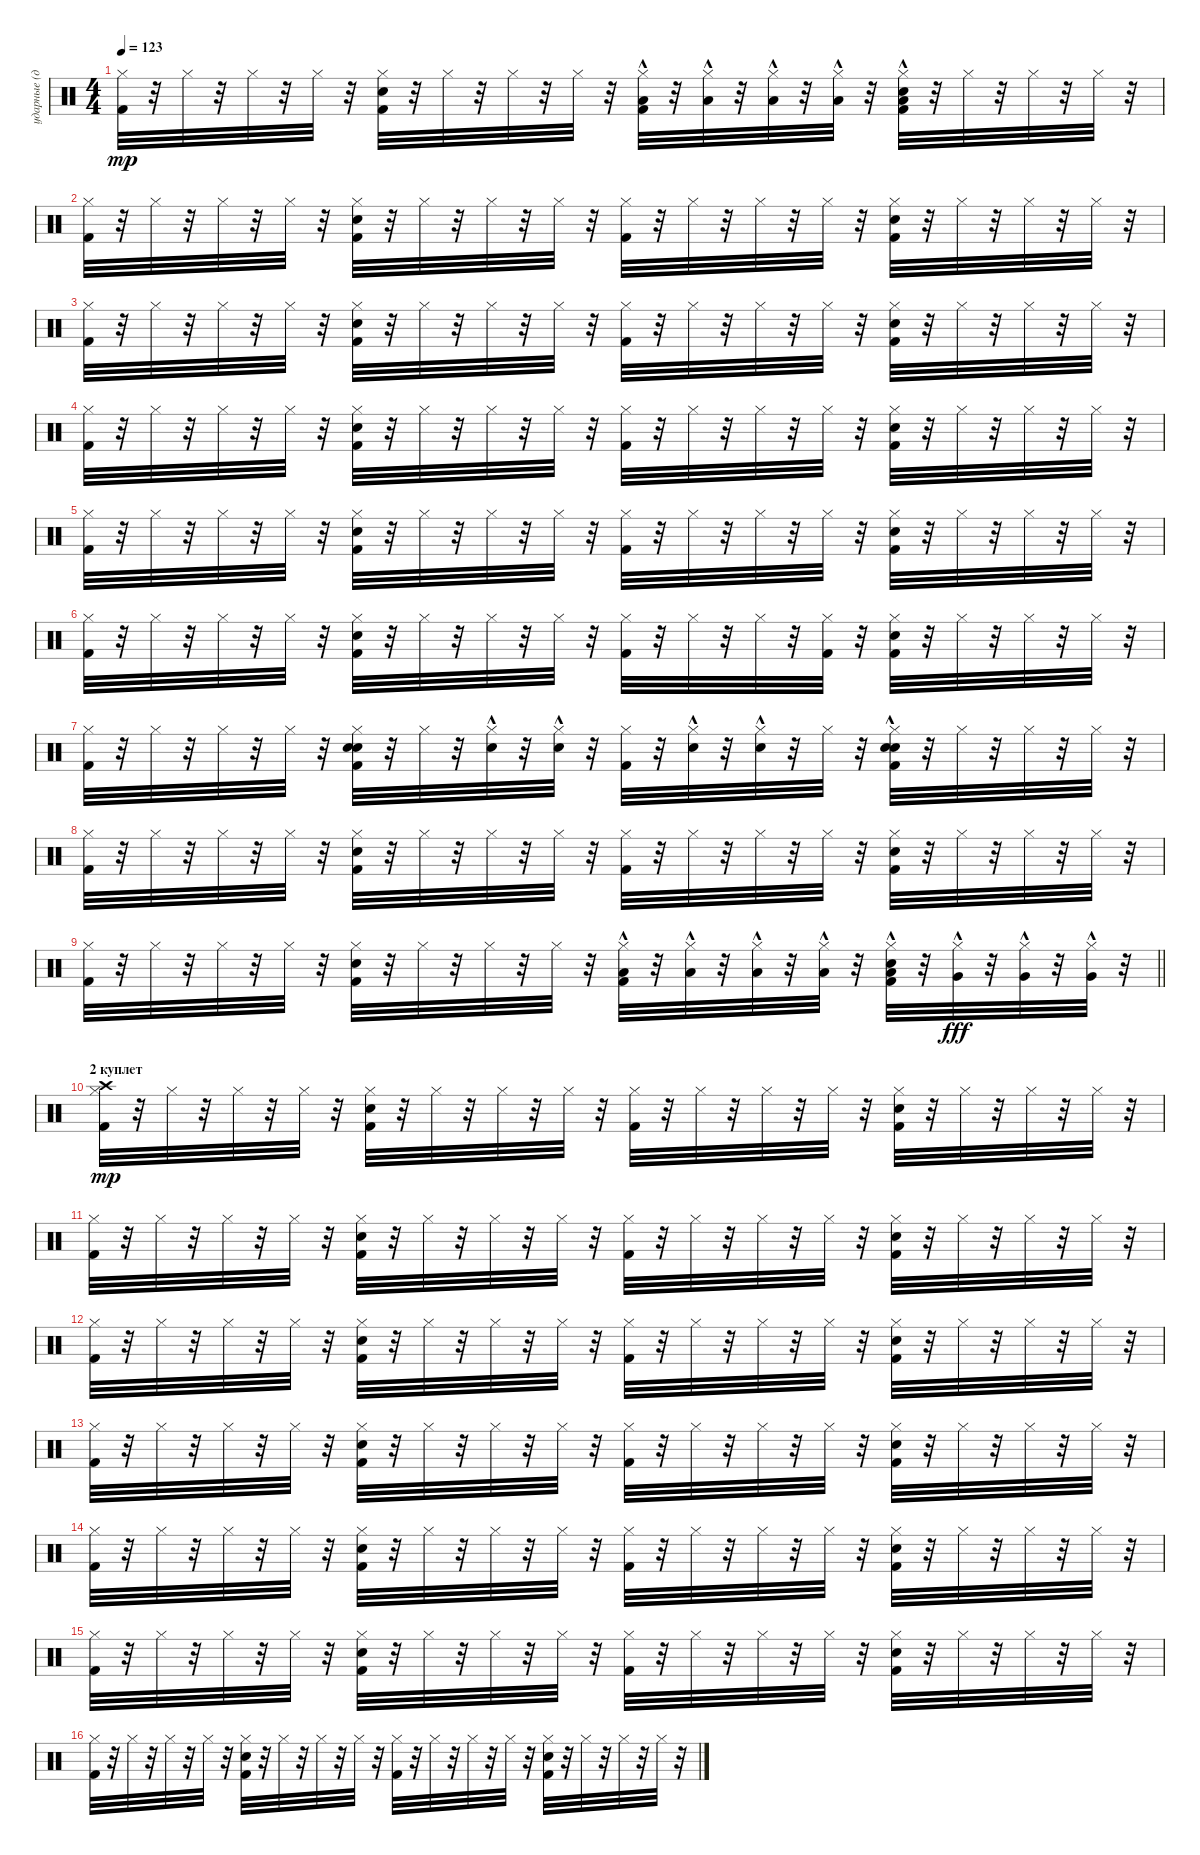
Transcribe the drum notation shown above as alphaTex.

\track ("ударные (драм-машина)" "ударные (д") {instrument percussion}
\staff {score}
\articulation defaults
\ts (4 4)
\tempo 123
\clef neutral
\ks c
("Kick (hit) 2" "Hi-Hat (closed)").32{dy mp} r.32 "Hi-Hat (closed)".32 r.32 "Hi-Hat (closed)".32 r.32 "Hi-Hat (closed)".32 r.32 ("Kick (hit) 2" "Snare (hit) 2" "Hi-Hat (closed)").32 r.32 "Hi-Hat (closed)".32 r.32 "Hi-Hat (closed)".32 r.32 "Hi-Hat (closed)".32 r.32 ("Low Tom (hit)"{hac} "Kick (hit) 2" "Hi-Hat (closed)").32 r.32 ("Low Tom (hit)"{hac} "Hi-Hat (closed)").32 r.32 ("Low Tom (hit)"{hac} "Hi-Hat (closed)").32 r.32 ("Low Tom (hit)"{hac} "Hi-Hat (closed)").32 r.32 ("Low Tom (hit)"{hac} "Kick (hit) 2" "Snare (hit) 2" "Hi-Hat (closed)").32 r.32 "Hi-Hat (closed)".32 r.32 "Hi-Hat (closed)".32 r.32 "Hi-Hat (closed)".32 r.32 |
("Kick (hit) 2" "Hi-Hat (closed)").32 r.32 "Hi-Hat (closed)".32 r.32 "Hi-Hat (closed)".32 r.32 "Hi-Hat (closed)".32 r.32 ("Kick (hit) 2" "Snare (hit) 2" "Hi-Hat (closed)").32 r.32 "Hi-Hat (closed)".32 r.32 "Hi-Hat (closed)".32 r.32 "Hi-Hat (closed)".32 r.32 ("Kick (hit) 2" "Hi-Hat (closed)").32 r.32 "Hi-Hat (closed)".32 r.32 "Hi-Hat (closed)".32 r.32 "Hi-Hat (closed)".32 r.32 ("Kick (hit) 2" "Snare (hit) 2" "Hi-Hat (closed)").32 r.32 "Hi-Hat (closed)".32 r.32 "Hi-Hat (closed)".32 r.32 "Hi-Hat (closed)".32 r.32 |
("Kick (hit) 2" "Hi-Hat (closed)").32 r.32 "Hi-Hat (closed)".32 r.32 "Hi-Hat (closed)".32 r.32 "Hi-Hat (closed)".32 r.32 ("Kick (hit) 2" "Snare (hit) 2" "Hi-Hat (closed)").32 r.32 "Hi-Hat (closed)".32 r.32 "Hi-Hat (closed)".32 r.32 "Hi-Hat (closed)".32 r.32 ("Kick (hit) 2" "Hi-Hat (closed)").32 r.32 "Hi-Hat (closed)".32 r.32 "Hi-Hat (closed)".32 r.32 "Hi-Hat (closed)".32 r.32 ("Kick (hit) 2" "Snare (hit) 2" "Hi-Hat (closed)").32 r.32 "Hi-Hat (closed)".32 r.32 "Hi-Hat (closed)".32 r.32 "Hi-Hat (closed)".32 r.32 |
("Kick (hit) 2" "Hi-Hat (closed)").32 r.32 "Hi-Hat (closed)".32 r.32 "Hi-Hat (closed)".32 r.32 "Hi-Hat (closed)".32 r.32 ("Kick (hit) 2" "Snare (hit) 2" "Hi-Hat (closed)").32 r.32 "Hi-Hat (closed)".32 r.32 "Hi-Hat (closed)".32 r.32 "Hi-Hat (closed)".32 r.32 ("Kick (hit) 2" "Hi-Hat (closed)").32 r.32 "Hi-Hat (closed)".32 r.32 "Hi-Hat (closed)".32 r.32 "Hi-Hat (closed)".32 r.32 ("Kick (hit) 2" "Snare (hit) 2" "Hi-Hat (closed)").32 r.32 "Hi-Hat (closed)".32 r.32 "Hi-Hat (closed)".32 r.32 "Hi-Hat (closed)".32 r.32 |
("Kick (hit) 2" "Hi-Hat (closed)").32 r.32 "Hi-Hat (closed)".32 r.32 "Hi-Hat (closed)".32 r.32 "Hi-Hat (closed)".32 r.32 ("Kick (hit) 2" "Snare (hit) 2" "Hi-Hat (closed)").32 r.32 "Hi-Hat (closed)".32 r.32 "Hi-Hat (closed)".32 r.32 "Hi-Hat (closed)".32 r.32 ("Kick (hit) 2" "Hi-Hat (closed)").32 r.32 "Hi-Hat (closed)".32 r.32 "Hi-Hat (closed)".32 r.32 "Hi-Hat (closed)".32 r.32 ("Kick (hit) 2" "Snare (hit) 2" "Hi-Hat (closed)").32 r.32 "Hi-Hat (closed)".32 r.32 "Hi-Hat (closed)".32 r.32 "Hi-Hat (closed)".32 r.32 |
("Kick (hit) 2" "Hi-Hat (closed)").32 r.32 "Hi-Hat (closed)".32 r.32 "Hi-Hat (closed)".32 r.32 "Hi-Hat (closed)".32 r.32 ("Kick (hit) 2" "Snare (hit) 2" "Hi-Hat (closed)").32 r.32 "Hi-Hat (closed)".32 r.32 "Hi-Hat (closed)".32 r.32 "Hi-Hat (closed)".32 r.32 ("Kick (hit) 2" "Hi-Hat (closed)").32 r.32 "Hi-Hat (closed)".32 r.32 "Hi-Hat (closed)".32 r.32 ("Kick (hit) 2" "Hi-Hat (closed)").32 r.32 ("Kick (hit) 2" "Snare (hit) 2" "Hi-Hat (closed)").32 r.32 "Hi-Hat (closed)".32 r.32 "Hi-Hat (closed)".32 r.32 "Hi-Hat (closed)".32 r.32 |
("Kick (hit) 2" "Hi-Hat (closed)").32 r.32 "Hi-Hat (closed)".32 r.32 "Hi-Hat (closed)".32 r.32 "Hi-Hat (closed)".32 r.32 ("Hand Clap (hit)" "Kick (hit) 2" "Snare (hit) 2" "Hi-Hat (closed)").32 r.32 "Hi-Hat (closed)".32 r.32 ("Hand Clap (hit)"{hac} "Hi-Hat (closed)").32 r.32 ("Hand Clap (hit)"{hac} "Hi-Hat (closed)").32 r.32 ("Kick (hit) 2" "Hi-Hat (closed)").32 r.32 ("Hand Clap (hit)"{hac} "Hi-Hat (closed)").32 r.32 ("Hand Clap (hit)"{hac} "Hi-Hat (closed)").32 r.32 "Hi-Hat (closed)".32 r.32 ("Kick (hit) 2" "Snare (hit) 2"{hac} "Hi-Hat (closed)" "Hand Clap (hit)").32 r.32 "Hi-Hat (closed)".32 r.32 "Hi-Hat (closed)".32 r.32 "Hi-Hat (closed)".32 r.32 |
("Kick (hit) 2" "Hi-Hat (closed)").32 r.32 "Hi-Hat (closed)".32 r.32 "Hi-Hat (closed)".32 r.32 "Hi-Hat (closed)".32 r.32 ("Kick (hit) 2" "Snare (hit) 2" "Hi-Hat (closed)").32 r.32 "Hi-Hat (closed)".32 r.32 "Hi-Hat (closed)".32 r.32 "Hi-Hat (closed)".32 r.32 ("Kick (hit) 2" "Hi-Hat (closed)").32 r.32 "Hi-Hat (closed)".32 r.32 "Hi-Hat (closed)".32 r.32 "Hi-Hat (closed)".32 r.32 ("Kick (hit) 2" "Snare (hit) 2" "Hi-Hat (closed)").32 r.32 "Hi-Hat (closed)".32 r.32 "Hi-Hat (closed)".32 r.32 "Hi-Hat (closed)".32 r.32 |
\barLineRight lightlight
("Kick (hit) 2" "Hi-Hat (closed)").32 r.32 "Hi-Hat (closed)".32 r.32 "Hi-Hat (closed)".32 r.32 "Hi-Hat (closed)".32 r.32 ("Kick (hit) 2" "Snare (hit) 2" "Hi-Hat (closed)").32 r.32 "Hi-Hat (closed)".32 r.32 "Hi-Hat (closed)".32 r.32 "Hi-Hat (closed)".32 r.32 ("Low Tom (hit)"{hac} "Kick (hit) 2" "Hi-Hat (closed)").32 r.32 ("Low Tom (hit)"{hac} "Hi-Hat (closed)").32 r.32 ("Low Tom (hit)"{hac} "Hi-Hat (closed)").32 r.32 ("Low Tom (hit)"{hac} "Hi-Hat (closed)").32 r.32 ("Low Tom (hit)"{hac} "Kick (hit) 2" "Snare (hit) 2" "Hi-Hat (closed)").32 r.32 ("Hi-Hat (closed)" "Very Low Tom (hit)"{hac}).32{dy fff} r.32 ("Hi-Hat (closed)" "Very Low Tom (hit)"{hac}).32 r.32 ("Hi-Hat (closed)" "Very Low Tom (hit)"{hac}).32 r.32 |
\section ("" "2 куплет")
("Crash high (hit)" "Kick (hit) 2" "Hi-Hat (closed)").32{dy mp} r.32 "Hi-Hat (closed)".32 r.32 "Hi-Hat (closed)".32 r.32 "Hi-Hat (closed)".32 r.32 ("Kick (hit) 2" "Snare (hit) 2" "Hi-Hat (closed)").32 r.32 "Hi-Hat (closed)".32 r.32 "Hi-Hat (closed)".32 r.32 "Hi-Hat (closed)".32 r.32 ("Kick (hit) 2" "Hi-Hat (closed)").32 r.32 "Hi-Hat (closed)".32 r.32 "Hi-Hat (closed)".32 r.32 "Hi-Hat (closed)".32 r.32 ("Kick (hit) 2" "Snare (hit) 2" "Hi-Hat (closed)").32 r.32 "Hi-Hat (closed)".32 r.32 "Hi-Hat (closed)".32 r.32 "Hi-Hat (closed)".32 r.32 |
("Kick (hit) 2" "Hi-Hat (closed)").32 r.32 "Hi-Hat (closed)".32 r.32 "Hi-Hat (closed)".32 r.32 "Hi-Hat (closed)".32 r.32 ("Kick (hit) 2" "Snare (hit) 2" "Hi-Hat (closed)").32 r.32 "Hi-Hat (closed)".32 r.32 "Hi-Hat (closed)".32 r.32 "Hi-Hat (closed)".32 r.32 ("Kick (hit) 2" "Hi-Hat (closed)").32 r.32 "Hi-Hat (closed)".32 r.32 "Hi-Hat (closed)".32 r.32 "Hi-Hat (closed)".32 r.32 ("Kick (hit) 2" "Snare (hit) 2" "Hi-Hat (closed)").32 r.32 "Hi-Hat (closed)".32 r.32 "Hi-Hat (closed)".32 r.32 "Hi-Hat (closed)".32 r.32 |
("Kick (hit) 2" "Hi-Hat (closed)").32 r.32 "Hi-Hat (closed)".32 r.32 "Hi-Hat (closed)".32 r.32 "Hi-Hat (closed)".32 r.32 ("Kick (hit) 2" "Snare (hit) 2" "Hi-Hat (closed)").32 r.32 "Hi-Hat (closed)".32 r.32 "Hi-Hat (closed)".32 r.32 "Hi-Hat (closed)".32 r.32 ("Kick (hit) 2" "Hi-Hat (closed)").32 r.32 "Hi-Hat (closed)".32 r.32 "Hi-Hat (closed)".32 r.32 "Hi-Hat (closed)".32 r.32 ("Kick (hit) 2" "Snare (hit) 2" "Hi-Hat (closed)").32 r.32 "Hi-Hat (closed)".32 r.32 "Hi-Hat (closed)".32 r.32 "Hi-Hat (closed)".32 r.32 |
("Kick (hit) 2" "Hi-Hat (closed)").32 r.32 "Hi-Hat (closed)".32 r.32 "Hi-Hat (closed)".32 r.32 "Hi-Hat (closed)".32 r.32 ("Kick (hit) 2" "Snare (hit) 2" "Hi-Hat (closed)").32 r.32 "Hi-Hat (closed)".32 r.32 "Hi-Hat (closed)".32 r.32 "Hi-Hat (closed)".32 r.32 ("Kick (hit) 2" "Hi-Hat (closed)").32 r.32 "Hi-Hat (closed)".32 r.32 "Hi-Hat (closed)".32 r.32 "Hi-Hat (closed)".32 r.32 ("Kick (hit) 2" "Snare (hit) 2" "Hi-Hat (closed)").32 r.32 "Hi-Hat (closed)".32 r.32 "Hi-Hat (closed)".32 r.32 "Hi-Hat (closed)".32 r.32 |
("Kick (hit) 2" "Hi-Hat (closed)").32 r.32 "Hi-Hat (closed)".32 r.32 "Hi-Hat (closed)".32 r.32 "Hi-Hat (closed)".32 r.32 ("Kick (hit) 2" "Snare (hit) 2" "Hi-Hat (closed)").32 r.32 "Hi-Hat (closed)".32 r.32 "Hi-Hat (closed)".32 r.32 "Hi-Hat (closed)".32 r.32 ("Kick (hit) 2" "Hi-Hat (closed)").32 r.32 "Hi-Hat (closed)".32 r.32 "Hi-Hat (closed)".32 r.32 "Hi-Hat (closed)".32 r.32 ("Kick (hit) 2" "Snare (hit) 2" "Hi-Hat (closed)").32 r.32 "Hi-Hat (closed)".32 r.32 "Hi-Hat (closed)".32 r.32 "Hi-Hat (closed)".32 r.32 |
("Kick (hit) 2" "Hi-Hat (closed)").32 r.32 "Hi-Hat (closed)".32 r.32 "Hi-Hat (closed)".32 r.32 "Hi-Hat (closed)".32 r.32 ("Kick (hit) 2" "Snare (hit) 2" "Hi-Hat (closed)").32 r.32 "Hi-Hat (closed)".32 r.32 "Hi-Hat (closed)".32 r.32 "Hi-Hat (closed)".32 r.32 ("Kick (hit) 2" "Hi-Hat (closed)").32 r.32 "Hi-Hat (closed)".32 r.32 "Hi-Hat (closed)".32 r.32 "Hi-Hat (closed)".32 r.32 ("Kick (hit) 2" "Snare (hit) 2" "Hi-Hat (closed)").32 r.32 "Hi-Hat (closed)".32 r.32 "Hi-Hat (closed)".32 r.32 "Hi-Hat (closed)".32 r.32 |
("Kick (hit) 2" "Hi-Hat (closed)").32 r.32 "Hi-Hat (closed)".32 r.32 "Hi-Hat (closed)".32 r.32 "Hi-Hat (closed)".32 r.32 ("Kick (hit) 2" "Snare (hit) 2" "Hi-Hat (closed)").32 r.32 "Hi-Hat (closed)".32 r.32 "Hi-Hat (closed)".32 r.32 "Hi-Hat (closed)".32 r.32 ("Kick (hit) 2" "Hi-Hat (closed)").32 r.32 "Hi-Hat (closed)".32 r.32 "Hi-Hat (closed)".32 r.32 "Hi-Hat (closed)".32 r.32 ("Kick (hit) 2" "Snare (hit) 2" "Hi-Hat (closed)").32 r.32 "Hi-Hat (closed)".32 r.32 "Hi-Hat (closed)".32 r.32 "Hi-Hat (closed)".32 r.32
